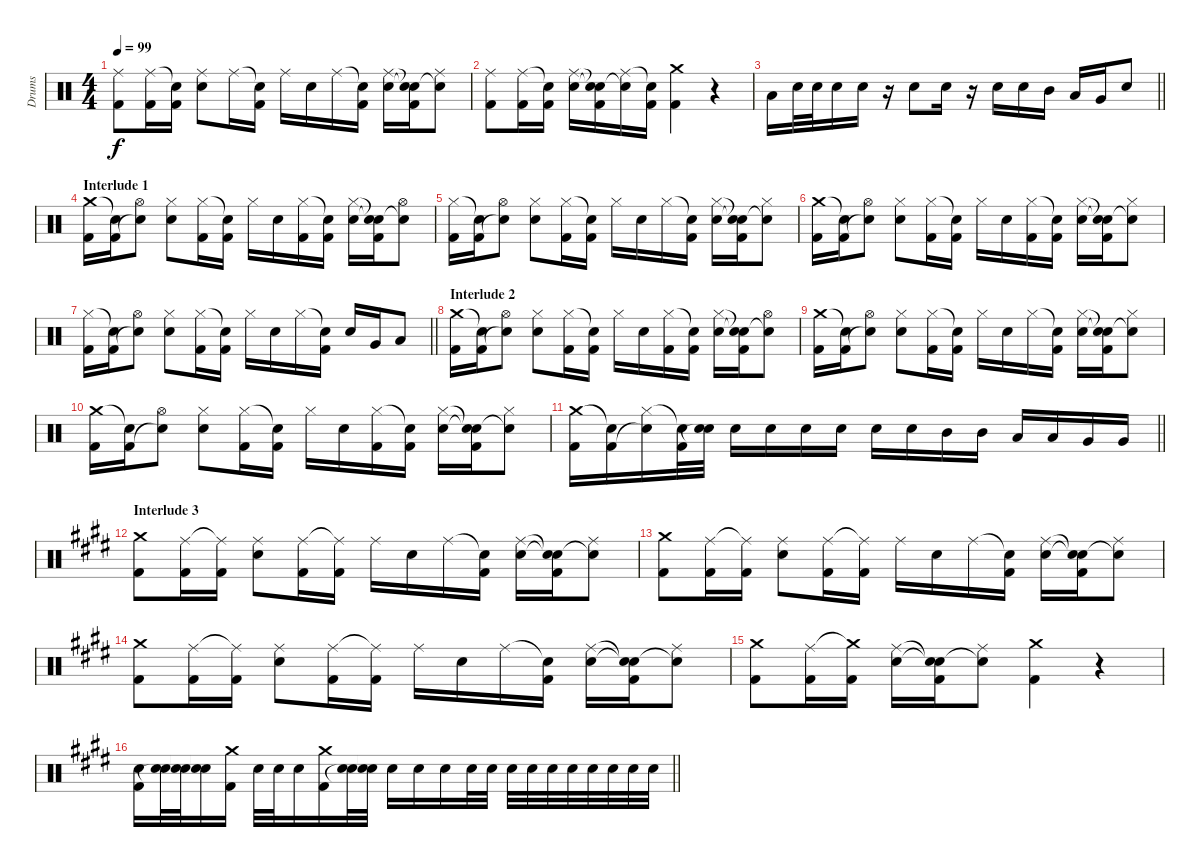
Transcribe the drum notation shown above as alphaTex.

\track ("Drums" "Drums") {instrument percussion}
\staff {score}
\articulation defaults
\ts (4 4)
\tempo 99
\clef neutral
\ks c
("Ride (middle)" "Kick (hit) 2").8{dy f} ("Ride (middle)" "Kick (hit) 2").16 ("Snare (hit)"{t} "Kick (hit) 2").16 ("Ride (middle)" "Electric Snare (hit)").8 "Ride (middle)".16 ("Snare (hit)"{t} "Kick (hit) 2").16 "Ride (middle)".16 "Electric Snare (hit)".16 "Ride (middle)".16 ("Snare (hit)"{t} "Kick (hit) 2").16 ("Ride (middle)" "Electric Snare (hit)").16 ("Snare (hit)"{t} "Snare (hit)"{t} "Kick (hit) 2").16 ("Ride (middle)" "Snare (hit)"{t}).8 |
("Ride (middle)" "Kick (hit) 2").8 ("Ride (middle)" "Kick (hit) 2").16 ("Snare (hit)"{t} "Kick (hit) 2").16 ("Ride (middle)" "Electric Snare (hit)").16 ("Snare (hit)"{t} "Snare (hit)"{t} "Kick (hit) 2").16 ("Ride (middle)" "Snare (hit)"{t}).16 ("Snare (hit)"{t} "Kick (hit) 2").16 ("Crash medium (hit)" "Kick (hit) 2").4 r.4 |
\barLineRight lightlight "Low Tom (hit)".16 "Electric Snare (hit)".32 "Electric Snare (hit)".32 "Electric Snare (hit)".16 "Electric Snare (hit)".16
r.16 "Electric Snare (hit)".8 "Electric Snare (hit)".16 r.16 "Electric Snare (hit)".16 "Electric Snare (hit)".16 "Mid Tom (hit)".16 "Low Tom (hit)".16 "Very Low Tom (hit)".16 "Electric Snare (hit)".8 |
\section ("" "Interlude 1")
("Crash medium (hit)" "Kick (hit) 2").16 ("Snare (hit)"{t} "Kick (hit) 2").16 ("Hi-Hat (open)" "Snare (hit)"{t}).8 ("Hi-Hat (closed)" "Electric Snare (hit)").8 ("Hi-Hat (closed)" "Kick (hit) 2").16 ("Snare (hit)"{t} "Kick (hit) 2").16 "Hi-Hat (closed)".16 "Electric Snare (hit)".16 ("Hi-Hat (closed)" "Kick (hit) 2").16 ("Snare (hit)"{t} "Kick (hit) 2").16 ("Hi-Hat (closed)" "Electric Snare (hit)").16 ("Snare (hit)"{t} "Snare (hit)"{t} "Kick (hit) 2").16 ("Hi-Hat (open)" "Snare (hit)"{t}).8 |
("Hi-Hat (closed)" "Kick (hit) 2").16 ("Snare (hit)"{t} "Kick (hit) 2").16 ("Hi-Hat (open)" "Snare (hit)"{t}).8 ("Hi-Hat (closed)" "Electric Snare (hit)").8 ("Hi-Hat (closed)" "Kick (hit) 2").16 ("Snare (hit)"{t} "Kick (hit) 2").16 "Hi-Hat (closed)".16 "Electric Snare (hit)".16 "Hi-Hat (closed)".16 ("Snare (hit)"{t} "Kick (hit) 2").16 ("Hi-Hat (closed)" "Electric Snare (hit)").16 ("Snare (hit)"{t} "Snare (hit)"{t} "Kick (hit) 2").16 ("Hi-Hat (closed)" "Snare (hit)"{t}).8 |
("Crash medium (hit)" "Kick (hit) 2").16 ("Snare (hit)"{t} "Kick (hit) 2").16 ("Hi-Hat (open)" "Snare (hit)"{t}).8 ("Hi-Hat (closed)" "Electric Snare (hit)").8 ("Hi-Hat (closed)" "Kick (hit) 2").16 ("Snare (hit)"{t} "Kick (hit) 2").16 "Hi-Hat (closed)".16 "Electric Snare (hit)".16 ("Hi-Hat (closed)" "Kick (hit) 2").16 ("Snare (hit)"{t} "Kick (hit) 2").16 ("Hi-Hat (closed)" "Electric Snare (hit)").16 ("Snare (hit)"{t} "Snare (hit)"{t} "Kick (hit) 2").16 ("Hi-Hat (closed)" "Snare (hit)"{t}).8 |
\barLineRight lightlight
("Hi-Hat (closed)" "Kick (hit) 2").16 ("Snare (hit)"{t} "Kick (hit) 2").16 ("Hi-Hat (open)" "Snare (hit)"{t}).8 ("Hi-Hat (closed)" "Electric Snare (hit)").8 ("Hi-Hat (closed)" "Kick (hit) 2").16 ("Snare (hit)"{t} "Kick (hit) 2").16 "Hi-Hat (closed)".16 "Electric Snare (hit)".16 "Hi-Hat (closed)".16 ("Snare (hit)"{t} "Kick (hit) 2").16 "Electric Snare (hit)".16 "Very Low Tom (hit)".16 "Low Floor Tom (hit)".8 |
\section ("" "Interlude 2")
("Crash medium (hit)" "Kick (hit) 2").16 ("Snare (hit)"{t} "Kick (hit) 2").16 ("Hi-Hat (open)" "Snare (hit)"{t}).8 ("Hi-Hat (closed)" "Electric Snare (hit)").8 ("Hi-Hat (closed)" "Kick (hit) 2").16 ("Snare (hit)"{t} "Kick (hit) 2").16 "Hi-Hat (closed)".16 "Electric Snare (hit)".16 ("Hi-Hat (closed)" "Kick (hit) 2").16 ("Snare (hit)"{t} "Kick (hit) 2").16 ("Hi-Hat (closed)" "Electric Snare (hit)").16 ("Snare (hit)"{t} "Snare (hit)"{t} "Kick (hit) 2").16 ("Hi-Hat (open)" "Snare (hit)"{t}).8 |
("Crash medium (hit)" "Kick (hit) 2").16 ("Snare (hit)"{t} "Kick (hit) 2").16 ("Hi-Hat (open)" "Snare (hit)"{t}).8 ("Hi-Hat (closed)" "Electric Snare (hit)").8 ("Hi-Hat (closed)" "Kick (hit) 2").16 ("Snare (hit)"{t} "Kick (hit) 2").16 "Hi-Hat (closed)".16 "Electric Snare (hit)".16 "Hi-Hat (closed)".16 ("Snare (hit)"{t} "Kick (hit) 2").16 ("Hi-Hat (closed)" "Electric Snare (hit)").16 ("Snare (hit)"{t} "Snare (hit)"{t} "Kick (hit) 2").16 ("Hi-Hat (closed)" "Snare (hit)"{t}).8 |
("Crash medium (hit)" "Kick (hit) 2").16 ("Snare (hit)"{t} "Kick (hit) 2").16 ("Hi-Hat (open)" "Snare (hit)"{t}).8 ("Hi-Hat (closed)" "Electric Snare (hit)").8 ("Hi-Hat (closed)" "Kick (hit) 2").16 ("Snare (hit)"{t} "Kick (hit) 2").16 "Hi-Hat (closed)".16 "Electric Snare (hit)".16 ("Hi-Hat (closed)" "Kick (hit) 2").16 ("Snare (hit)"{t} "Kick (hit) 2").16 ("Hi-Hat (closed)" "Electric Snare (hit)").16 ("Snare (hit)"{t} "Snare (hit)"{t} "Kick (hit) 2").16 ("Hi-Hat (closed)" "Snare (hit)"{t}).8 |
\barLineRight lightlight
("Crash medium (hit)" "Kick (hit) 2").16 ("Snare (hit)"{t} "Kick (hit) 2").16 ("Hi-Hat (closed)" "Snare (hit)"{t}).16 ("Snare (hit)"{t} "Kick (hit) 2").32 ("Electric Snare (hit)" "Snare (hit)"{t}).32 "Electric Snare (hit)".16 "Electric Snare (hit)".16 "Electric Snare (hit)".16 "Electric Snare (hit)".16 "Electric Snare (hit)".16 "Electric Snare (hit)".16 "Mid Tom (hit)".16 "Mid Tom (hit)".16 "Low Tom (hit)".16 "Low Tom (hit)".16 "Very Low Tom (hit)".16 "Very Low Tom (hit)".16 |
\section ("" "Interlude 3")
\ks c#minor
("Crash medium (hit)" "Kick (hit) 2").8 ("Ride (middle)" "Kick (hit) 2").16 ("Ride (middle)"{t} "Kick (hit) 2").16 ("Ride (middle)" "Electric Snare (hit)").8 ("Ride (middle)" "Kick (hit) 2").16 ("Ride (middle)"{t} "Kick (hit) 2").16 "Ride (middle)".16 "Electric Snare (hit)".16 "Ride (middle)".16 ("Snare (hit)"{t} "Kick (hit) 2").16 ("Ride (middle)" "Electric Snare (hit)").16 ("Snare (hit)"{t} "Snare (hit)"{t} "Kick (hit) 2").16 ("Ride (middle)" "Snare (hit)"{t}).8 |
("Crash medium (hit)" "Kick (hit) 2").8 ("Ride (middle)" "Kick (hit) 2").16 ("Ride (middle)"{t} "Kick (hit) 2").16 ("Ride (middle)" "Electric Snare (hit)").8 ("Ride (middle)" "Kick (hit) 2").16 ("Ride (middle)"{t} "Kick (hit) 2").16 "Ride (middle)".16 "Electric Snare (hit)".16 "Ride (middle)".16 ("Snare (hit)"{t} "Kick (hit) 2").16 ("Ride (middle)" "Electric Snare (hit)").16 ("Snare (hit)"{t} "Snare (hit)"{t} "Kick (hit) 2").16 ("Ride (middle)" "Snare (hit)"{t}).8 |
("Crash medium (hit)" "Kick (hit) 2").8 ("Ride (middle)" "Kick (hit) 2").16 ("Ride (middle)"{t} "Kick (hit) 2").16 ("Ride (middle)" "Electric Snare (hit)").8 ("Ride (middle)" "Kick (hit) 2").16 ("Ride (middle)"{t} "Kick (hit) 2").16 "Ride (middle)".16 "Electric Snare (hit)".16 "Ride (middle)".16 ("Snare (hit)"{t} "Kick (hit) 2").16 ("Ride (middle)" "Electric Snare (hit)").16 ("Snare (hit)"{t} "Snare (hit)"{t} "Kick (hit) 2").16 ("Ride (middle)" "Snare (hit)"{t}).8 |
("Crash medium (hit)" "Kick (hit) 2").8 ("Ride (middle)" "Kick (hit) 2").16 ("Crash medium (hit)"{t} "Kick (hit) 2").16 ("Ride (middle)" "Electric Snare (hit)").16 ("Snare (hit)"{t} "Snare (hit)"{t} "Kick (hit) 2").16 ("Ride (middle)" "Snare (hit)"{t}).8 ("Crash medium (hit)" "Kick (hit) 2").4 r.4 |
\barLineRight lightlight
("Electric Snare (hit)" "Kick (hit) 2").16 ("Electric Snare (hit)" "Snare (hit)"{t}).32 ("Electric Snare (hit)" "Snare (hit)"{t}).32 ("Electric Snare (hit)" "Snare (hit)"{t}).16 ("Crash medium (hit)" "Kick (hit) 2").16 "Electric Snare (hit)".32 "Electric Snare (hit)".32 "Electric Snare (hit)".16 ("Crash medium (hit)" "Kick (hit) 2").16 ("Electric Snare (hit)" "Snare (hit)"{t}).32 ("Electric Snare (hit)" "Snare (hit)"{t}).32 "Electric Snare (hit)".16 "Electric Snare (hit)".16 "Electric Snare (hit)".16 "Electric Snare (hit)".32 "Electric Snare (hit)".32 "Electric Snare (hit)".32 "Electric Snare (hit)".32 "Electric Snare (hit)".32 "Electric Snare (hit)".32 "Electric Snare (hit)".32 "Electric Snare (hit)".32 "Electric Snare (hit)".32 "Electric Snare (hit)".32
